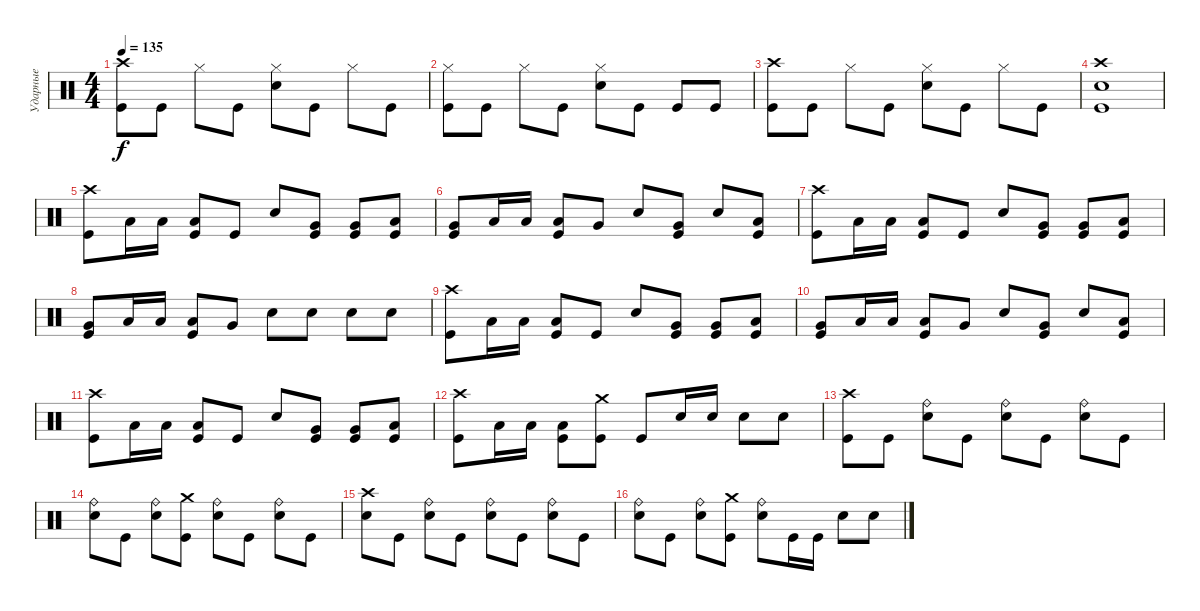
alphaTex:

\track ("Ударные" "Ударные") {instrument percussion}
\staff {score}
\articulation defaults
\ts (4 4)
\tempo 135
\clef neutral
\ks c
("Crash high (hit)" "Kick (hit)").8{dy f} "Kick (hit)".8 "Hi-Hat (closed)".8 "Kick (hit)".8 ("Hi-Hat (closed)" "Electric Snare (hit)").8 "Kick (hit)".8 "Hi-Hat (closed)".8 "Kick (hit)".8 |
("Hi-Hat (closed)" "Kick (hit)").8 "Kick (hit)".8 "Hi-Hat (closed)".8 "Kick (hit)".8 ("Hi-Hat (closed)" "Electric Snare (hit)").8 "Kick (hit)".8 "Kick (hit)".8 "Kick (hit)".8 |
("Crash high (hit)" "Kick (hit)").8 "Kick (hit)".8 "Hi-Hat (closed)".8 "Kick (hit)".8 ("Hi-Hat (closed)" "Electric Snare (hit)").8 "Kick (hit)".8 "Hi-Hat (closed)".8 "Kick (hit)".8 |
("Crash high (hit)" "Electric Snare (hit)" "Kick (hit)").1 |
("Crash high (hit)" "Kick (hit)").8 "Low Tom (hit)".16 "Low Tom (hit)".16 ("Low Tom (hit)" "Kick (hit)").8 "Kick (hit)".8 "Electric Snare (hit)".8 ("Very Low Tom (hit)" "Kick (hit)").8 ("Very Low Tom (hit)" "Kick (hit)").8 ("Low Tom (hit)" "Kick (hit)").8 |
("Very Low Tom (hit)" "Kick (hit)").8 "Low Tom (hit)".16 "Low Tom (hit)".16 ("Low Tom (hit)" "Kick (hit)").8 "Very Low Tom (hit)".8 "Electric Snare (hit)".8 ("Very Low Tom (hit)" "Kick (hit)").8 "Electric Snare (hit)".8 ("Low Tom (hit)" "Kick (hit)").8 |
("Crash high (hit)" "Kick (hit)").8 "Low Tom (hit)".16 "Low Tom (hit)".16 ("Low Tom (hit)" "Kick (hit)").8 "Kick (hit)".8 "Electric Snare (hit)".8 ("Very Low Tom (hit)" "Kick (hit)").8 ("Very Low Tom (hit)" "Kick (hit)").8 ("Low Tom (hit)" "Kick (hit)").8 |
("Very Low Tom (hit)" "Kick (hit)").8 "Low Tom (hit)".16 "Low Tom (hit)".16 ("Low Tom (hit)" "Kick (hit)").8 "Very Low Tom (hit)".8 "Electric Snare (hit)".8 "Electric Snare (hit)".8 "Electric Snare (hit)".8 "Electric Snare (hit)".8 |
("Crash high (hit)" "Kick (hit)").8 "Low Tom (hit)".16 "Low Tom (hit)".16 ("Low Tom (hit)" "Kick (hit)").8 "Kick (hit)".8 "Electric Snare (hit)".8 ("Very Low Tom (hit)" "Kick (hit)").8 ("Very Low Tom (hit)" "Kick (hit)").8 ("Low Tom (hit)" "Kick (hit)").8 |
("Very Low Tom (hit)" "Kick (hit)").8 "Low Tom (hit)".16 "Low Tom (hit)".16 ("Low Tom (hit)" "Kick (hit)").8 "Very Low Tom (hit)".8 "Electric Snare (hit)".8 ("Very Low Tom (hit)" "Kick (hit)").8 "Electric Snare (hit)".8 ("Low Tom (hit)" "Kick (hit)").8 |
("Crash high (hit)" "Kick (hit)").8 "Low Tom (hit)".16 "Low Tom (hit)".16 ("Low Tom (hit)" "Kick (hit)").8 "Kick (hit)".8 "Electric Snare (hit)".8 ("Very Low Tom (hit)" "Kick (hit)").8 ("Very Low Tom (hit)" "Kick (hit)").8 ("Low Tom (hit)" "Kick (hit)").8 |
("Crash high (hit)" "Kick (hit)").8 "Low Tom (hit)".16 "Low Tom (hit)".16 ("Low Tom (hit)" "Kick (hit)").8 ("Crash medium (hit)" "Kick (hit)").8 "Kick (hit)".8 "Electric Snare (hit)".16 "Electric Snare (hit)".16 "Electric Snare (hit)".8 "Electric Snare (hit)".8 |
("Crash high (hit)" "Kick (hit)").8 "Kick (hit)".8 ("Ride (bell)" "Electric Snare (hit)").8 "Kick (hit)".8 ("Ride (bell)" "Electric Snare (hit)").8 "Kick (hit)".8 ("Ride (bell)" "Electric Snare (hit)").8 "Kick (hit)".8 |
("Ride (bell)" "Electric Snare (hit)").8 "Kick (hit)".8 ("Ride (bell)" "Electric Snare (hit)").8 ("Crash medium (hit)" "Kick (hit)").8 ("Ride (bell)" "Electric Snare (hit)").8 "Kick (hit)".8 ("Ride (bell)" "Electric Snare (hit)").8 "Kick (hit)".8 |
("Crash high (hit)" "Electric Snare (hit)").8 "Kick (hit)".8 ("Ride (bell)" "Electric Snare (hit)").8 "Kick (hit)".8 ("Ride (bell)" "Electric Snare (hit)").8 "Kick (hit)".8 ("Ride (bell)" "Electric Snare (hit)").8 "Kick (hit)".8 |
("Ride (bell)" "Electric Snare (hit)").8 "Kick (hit)".8 ("Ride (bell)" "Electric Snare (hit)").8 ("Crash medium (hit)" "Kick (hit)").8 ("Ride (bell)" "Electric Snare (hit)").8 "Kick (hit)".16 "Kick (hit)".16 "Electric Snare (hit)".8 "Electric Snare (hit)".8
